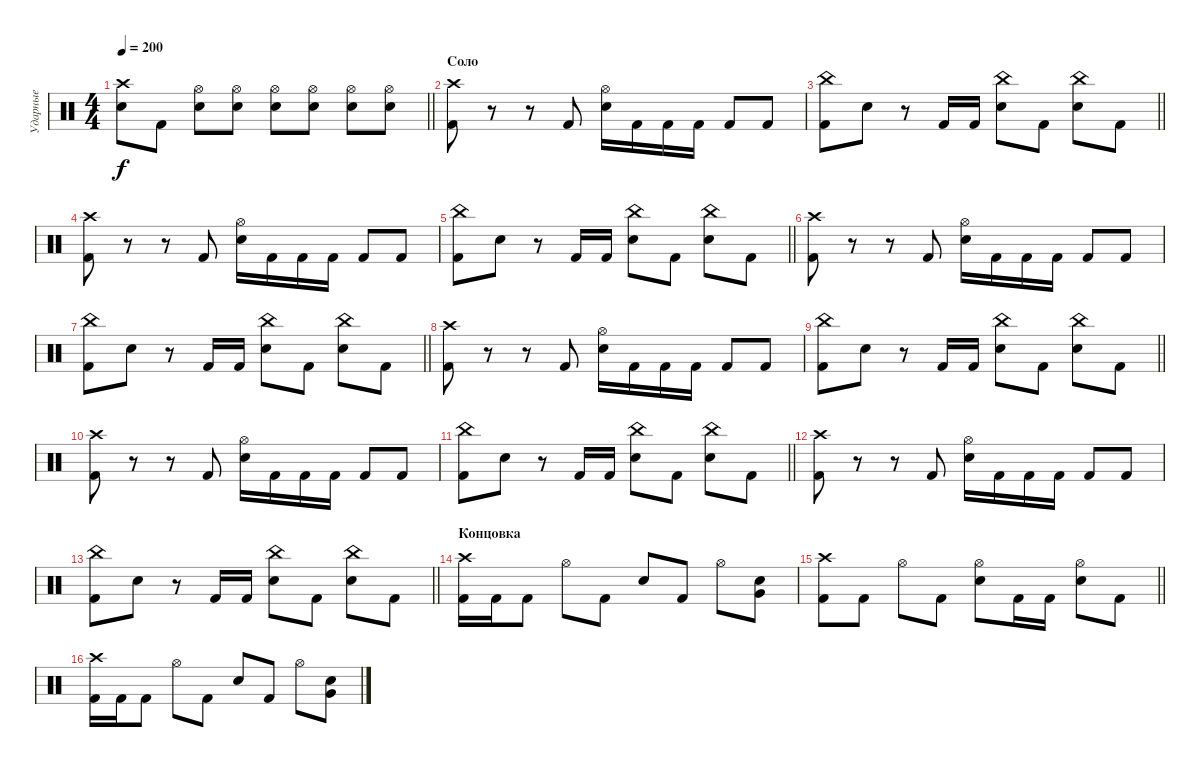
\track ("Ударные" "Ударные") {instrument percussion}
\staff {score}
\articulation defaults
\ts (4 4)
\tempo 200
\clef neutral
\barLineRight lightlight
\ks c
("Electric Snare (hit)" "Crash high (hit)").8{dy f} "Kick (hit) 2".8 ("Electric Snare (hit)" "Hi-Hat (open)").8 ("Hi-Hat (open)" "Electric Snare (hit)").8 ("Hi-Hat (open)" "Electric Snare (hit)").8 ("Hi-Hat (open)" "Electric Snare (hit)").8 ("Electric Snare (hit)" "Hi-Hat (open)").8 ("Hi-Hat (open)" "Electric Snare (hit)").8 |
\section ("" "Соло")
("Kick (hit) 2" "Crash high (hit)").8 r.8 r.8 "Kick (hit) 2".8 ("Electric Snare (hit)" "Hi-Hat (open)").16 "Kick (hit) 2".16 "Kick (hit) 2".16 "Kick (hit) 2".16 "Kick (hit) 2".8 "Kick (hit) 2".8 |
\barLineRight lightlight
("Kick (hit) 2" "China (hit)").8 "Electric Snare (hit)".8 r.8 "Kick (hit) 2".16 "Kick (hit) 2".16 ("Electric Snare (hit)" "China (hit)").8 "Kick (hit) 2".8 ("Electric Snare (hit)" "China (hit)").8 "Kick (hit) 2".8 |
("Kick (hit) 2" "Crash high (hit)").8 r.8 r.8 "Kick (hit) 2".8 ("Electric Snare (hit)" "Hi-Hat (open)").16 "Kick (hit) 2".16 "Kick (hit) 2".16 "Kick (hit) 2".16 "Kick (hit) 2".8 "Kick (hit) 2".8 |
\barLineRight lightlight
("Kick (hit) 2" "China (hit)").8 "Electric Snare (hit)".8 r.8 "Kick (hit) 2".16 "Kick (hit) 2".16 ("Electric Snare (hit)" "China (hit)").8 "Kick (hit) 2".8 ("Electric Snare (hit)" "China (hit)").8 "Kick (hit) 2".8 |
("Kick (hit) 2" "Crash high (hit)").8 r.8 r.8 "Kick (hit) 2".8 ("Electric Snare (hit)" "Hi-Hat (open)").16 "Kick (hit) 2".16 "Kick (hit) 2".16 "Kick (hit) 2".16 "Kick (hit) 2".8 "Kick (hit) 2".8 |
\barLineRight lightlight
("Kick (hit) 2" "China (hit)").8 "Electric Snare (hit)".8 r.8 "Kick (hit) 2".16 "Kick (hit) 2".16 ("Electric Snare (hit)" "China (hit)").8 "Kick (hit) 2".8 ("Electric Snare (hit)" "China (hit)").8 "Kick (hit) 2".8 |
("Kick (hit) 2" "Crash high (hit)").8 r.8 r.8 "Kick (hit) 2".8 ("Electric Snare (hit)" "Hi-Hat (open)").16 "Kick (hit) 2".16 "Kick (hit) 2".16 "Kick (hit) 2".16 "Kick (hit) 2".8 "Kick (hit) 2".8 |
\barLineRight lightlight
("Kick (hit) 2" "China (hit)").8 "Electric Snare (hit)".8 r.8 "Kick (hit) 2".16 "Kick (hit) 2".16 ("Electric Snare (hit)" "China (hit)").8 "Kick (hit) 2".8 ("Electric Snare (hit)" "China (hit)").8 "Kick (hit) 2".8 |
("Kick (hit) 2" "Crash high (hit)").8 r.8 r.8 "Kick (hit) 2".8 ("Electric Snare (hit)" "Hi-Hat (open)").16 "Kick (hit) 2".16 "Kick (hit) 2".16 "Kick (hit) 2".16 "Kick (hit) 2".8 "Kick (hit) 2".8 |
\barLineRight lightlight
("Kick (hit) 2" "China (hit)").8 "Electric Snare (hit)".8 r.8 "Kick (hit) 2".16 "Kick (hit) 2".16 ("Electric Snare (hit)" "China (hit)").8 "Kick (hit) 2".8 ("Electric Snare (hit)" "China (hit)").8 "Kick (hit) 2".8 |
("Kick (hit) 2" "Crash high (hit)").8 r.8 r.8 "Kick (hit) 2".8 ("Electric Snare (hit)" "Hi-Hat (open)").16 "Kick (hit) 2".16 "Kick (hit) 2".16 "Kick (hit) 2".16 "Kick (hit) 2".8 "Kick (hit) 2".8 |
\barLineRight lightlight
("Kick (hit) 2" "China (hit)").8 "Electric Snare (hit)".8 r.8 "Kick (hit) 2".16 "Kick (hit) 2".16 ("Electric Snare (hit)" "China (hit)").8 "Kick (hit) 2".8 ("Electric Snare (hit)" "China (hit)").8 "Kick (hit) 2".8 |
\section ("" "Концовка")
("Kick (hit) 2" "Crash high (hit)").16 "Kick (hit) 2".16 "Kick (hit) 2".8 "Hi-Hat (open)".8 "Kick (hit) 2".8 "Electric Snare (hit)".8 "Kick (hit) 2".8 "Hi-Hat (open)".8 ("Very Low Tom (hit)" "Electric Snare (hit)").8 |
\barLineRight lightlight
("Kick (hit) 2" "Crash high (hit)").8 "Kick (hit) 2".8 "Hi-Hat (open)".8 "Kick (hit) 2".8 ("Hi-Hat (open)" "Electric Snare (hit)").8 "Kick (hit) 2".16 "Kick (hit) 2".16 ("Hi-Hat (open)" "Electric Snare (hit)").8 "Kick (hit) 2".8 |
("Kick (hit) 2" "Crash high (hit)").16 "Kick (hit) 2".16 "Kick (hit) 2".8 "Hi-Hat (open)".8 "Kick (hit) 2".8 "Electric Snare (hit)".8 "Kick (hit) 2".8 "Hi-Hat (open)".8 ("Very Low Tom (hit)" "Electric Snare (hit)").8
